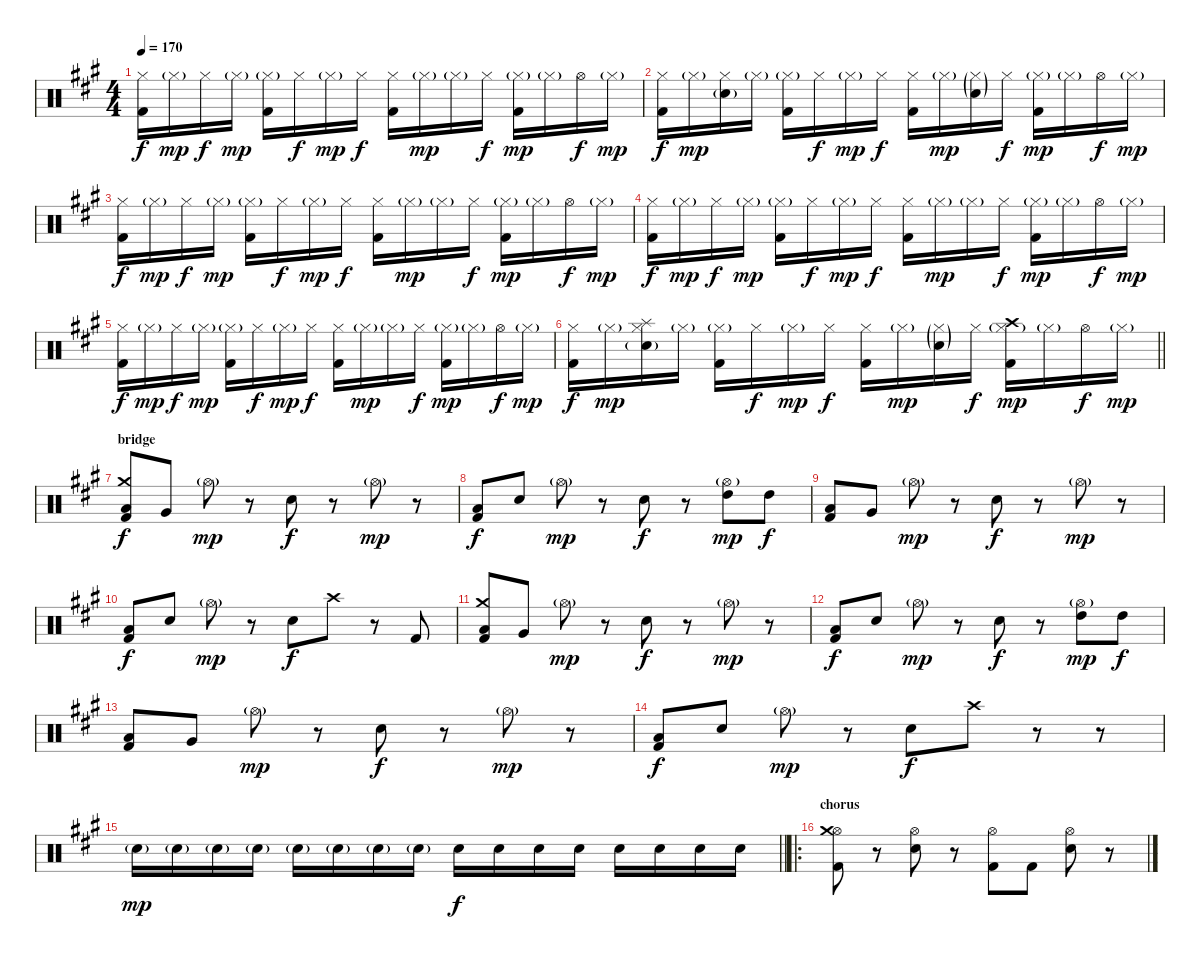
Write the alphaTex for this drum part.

\track "" {instrument percussion}
\staff {score}
\articulation defaults
\ts (4 4)
\tempo 170
\clef neutral
\ks f#minor
("Kick (hit) 2" "Hi-Hat (closed)").16{dy f} "Hi-Hat (closed)"{g}.16{dy mp} "Hi-Hat (closed)".16{dy f} "Hi-Hat (closed)"{g}.16{dy mp} ("Kick (hit) 2" "Hi-Hat (closed)"{g}).16 "Hi-Hat (closed)".16{dy f} "Hi-Hat (closed)"{g}.16{dy mp} "Hi-Hat (closed)".16{dy f} ("Kick (hit) 2" "Hi-Hat (closed)").16 "Hi-Hat (closed)"{g}.16{dy mp} "Hi-Hat (closed)"{g}.16 "Hi-Hat (closed)".16{dy f} ("Kick (hit) 2" "Hi-Hat (closed)"{g}).16{dy mp} "Hi-Hat (closed)"{g}.16 "Hi-Hat (open)".16{dy f} "Hi-Hat (closed)"{g}.16{dy mp} |
("Kick (hit) 2" "Hi-Hat (closed)").16{dy f} "Hi-Hat (closed)"{g}.16{dy mp} ("Electric Snare (hit)"{g} "Hi-Hat (closed)").16 "Hi-Hat (closed)"{g}.16 ("Kick (hit) 2" "Hi-Hat (closed)"{g}).16 "Hi-Hat (closed)".16{dy f} "Hi-Hat (closed)"{g}.16{dy mp} "Hi-Hat (closed)".16{dy f} ("Kick (hit) 2" "Hi-Hat (closed)").16 "Hi-Hat (closed)"{g}.16{dy mp} ("Electric Snare (hit)"{g} "Hi-Hat (closed)"{g}).16 "Hi-Hat (closed)".16{dy f} ("Kick (hit) 2" "Hi-Hat (closed)"{g}).16{dy mp} "Hi-Hat (closed)"{g}.16 "Hi-Hat (open)".16{dy f} "Hi-Hat (closed)"{g}.16{dy mp} |
("Kick (hit) 2" "Hi-Hat (closed)").16{dy f} "Hi-Hat (closed)"{g}.16{dy mp} "Hi-Hat (closed)".16{dy f} "Hi-Hat (closed)"{g}.16{dy mp} ("Kick (hit) 2" "Hi-Hat (closed)"{g}).16 "Hi-Hat (closed)".16{dy f} "Hi-Hat (closed)"{g}.16{dy mp} "Hi-Hat (closed)".16{dy f} ("Kick (hit) 2" "Hi-Hat (closed)").16 "Hi-Hat (closed)"{g}.16{dy mp} "Hi-Hat (closed)"{g}.16 "Hi-Hat (closed)".16{dy f} ("Kick (hit) 2" "Hi-Hat (closed)"{g}).16{dy mp} "Hi-Hat (closed)"{g}.16 "Hi-Hat (open)".16{dy f} "Hi-Hat (closed)"{g}.16{dy mp} |
("Kick (hit) 2" "Hi-Hat (closed)").16{dy f} "Hi-Hat (closed)"{g}.16{dy mp} "Hi-Hat (closed)".16{dy f} "Hi-Hat (closed)"{g}.16{dy mp} ("Kick (hit) 2" "Hi-Hat (closed)"{g}).16 "Hi-Hat (closed)".16{dy f} "Hi-Hat (closed)"{g}.16{dy mp} "Hi-Hat (closed)".16{dy f} ("Kick (hit) 2" "Hi-Hat (closed)").16 "Hi-Hat (closed)"{g}.16{dy mp} "Hi-Hat (closed)"{g}.16 "Hi-Hat (closed)".16{dy f} ("Kick (hit) 2" "Hi-Hat (closed)"{g}).16{dy mp} "Hi-Hat (closed)"{g}.16 "Hi-Hat (open)".16{dy f} "Hi-Hat (closed)"{g}.16{dy mp} |
("Kick (hit) 2" "Hi-Hat (closed)").16{dy f} "Hi-Hat (closed)"{g}.16{dy mp} "Hi-Hat (closed)".16{dy f} "Hi-Hat (closed)"{g}.16{dy mp} ("Kick (hit) 2" "Hi-Hat (closed)"{g}).16 "Hi-Hat (closed)".16{dy f} "Hi-Hat (closed)"{g}.16{dy mp} "Hi-Hat (closed)".16{dy f} ("Kick (hit) 2" "Hi-Hat (closed)").16 "Hi-Hat (closed)"{g}.16{dy mp} "Hi-Hat (closed)"{g}.16 "Hi-Hat (closed)".16{dy f} ("Kick (hit) 2" "Hi-Hat (closed)"{g}).16{dy mp} "Hi-Hat (closed)"{g}.16 "Hi-Hat (open)".16{dy f} "Hi-Hat (closed)"{g}.16{dy mp} |
\barLineRight lightlight
("Kick (hit) 2" "Hi-Hat (closed)").16{dy f} "Hi-Hat (closed)"{g}.16{dy mp} ("Electric Snare (hit)"{g} "Hi-Hat (closed)" "Splash (hit)").16 "Hi-Hat (closed)"{g}.16 ("Kick (hit) 2" "Hi-Hat (closed)"{g}).16 "Hi-Hat (closed)".16{dy f} "Hi-Hat (closed)"{g}.16{dy mp} "Hi-Hat (closed)".16{dy f} ("Kick (hit) 2" "Hi-Hat (closed)").16 "Hi-Hat (closed)"{g}.16{dy mp} ("Electric Snare (hit)"{g} "Hi-Hat (closed)"{g}).16 "Hi-Hat (closed)".16{dy f} ("Kick (hit) 2" "Hi-Hat (closed)"{g} "Crash high (hit)").16{dy mp} "Hi-Hat (closed)"{g}.16 "Hi-Hat (open)".16{dy f} "Hi-Hat (closed)"{g}.16{dy mp} |
\section ("" "bridge")
("Crash medium (hit)" "Low Tom (hit)" "Kick (hit) 2").8{dy f} "Very Low Tom (hit)".8 "Hi-Hat (open)"{g}.8{dy mp} r.8 "Electric Snare (hit)".8{dy f} r.8 "Hi-Hat (open)"{g}.8{dy mp} r.8 |
("Low Tom (hit)" "Kick (hit) 2").8{dy f} "Electric Snare (hit)".8 "Hi-Hat (open)"{g}.8{dy mp} r.8 "Electric Snare (hit)".8{dy f} r.8 ("Hi-Hat (open)"{g} "High Tom (hit)").8{dy mp} "High Tom (hit)".8{dy f} |
("Low Tom (hit)" "Kick (hit) 2").8 "Very Low Tom (hit)".8 "Hi-Hat (open)"{g}.8{dy mp} r.8 "Electric Snare (hit)".8{dy f} r.8 "Hi-Hat (open)"{g}.8{dy mp} r.8 |
("Low Tom (hit)" "Kick (hit) 2").8{dy f} "Electric Snare (hit)".8 "Hi-Hat (open)"{g}.8{dy mp} r.8 "Electric Snare (hit)".8{dy f} "Crash high (hit)".8 r.8 "Kick (hit) 2".8 |
("Crash medium (hit)" "Low Tom (hit)" "Kick (hit) 2").8 "Very Low Tom (hit)".8 "Hi-Hat (open)"{g}.8{dy mp} r.8 "Electric Snare (hit)".8{dy f} r.8 "Hi-Hat (open)"{g}.8{dy mp} r.8 |
("Low Tom (hit)" "Kick (hit) 2").8{dy f} "Electric Snare (hit)".8 "Hi-Hat (open)"{g}.8{dy mp} r.8 "Electric Snare (hit)".8{dy f} r.8 ("Hi-Hat (open)"{g} "High Tom (hit)").8{dy mp} "High Tom (hit)".8{dy f} |
("Low Tom (hit)" "Kick (hit) 2").8 "Very Low Tom (hit)".8 "Hi-Hat (open)"{g}.8{dy mp} r.8 "Electric Snare (hit)".8{dy f} r.8 "Hi-Hat (open)"{g}.8{dy mp} r.8 |
("Low Tom (hit)" "Kick (hit) 2").8{dy f} "Electric Snare (hit)".8 "Hi-Hat (open)"{g}.8{dy mp} r.8 "Electric Snare (hit)".8{dy f} "Crash high (hit)".8 r.8 r.8 |
\barLineRight lightlight "Electric Snare (hit)"{g}.16{dy mp} "Electric Snare (hit)"{g}.16 "Electric Snare (hit)"{g}.16 "Electric Snare (hit)"{g}.16 "Electric Snare (hit)"{g}.16 "Electric Snare (hit)"{g}.16 "Electric Snare (hit)"{g}.16 "Electric Snare (hit)"{g}.16 "Electric Snare (hit)".16{dy f} "Electric Snare (hit)".16 "Electric Snare (hit)".16 "Electric Snare (hit)".16 "Electric Snare (hit)".16 "Electric Snare (hit)".16 "Electric Snare (hit)".16 "Electric Snare (hit)".16
|
\ro
\section ("" "chorus")
("Kick (hit) 2" "Hi-Hat (open)" "Crash medium (hit)").8 r.8 ("Electric Snare (hit)" "Hi-Hat (open)").8 r.8 ("Kick (hit) 2" "Hi-Hat (open)").8 "Kick (hit) 2".8 ("Electric Snare (hit)" "Hi-Hat (open)").8 r.8
